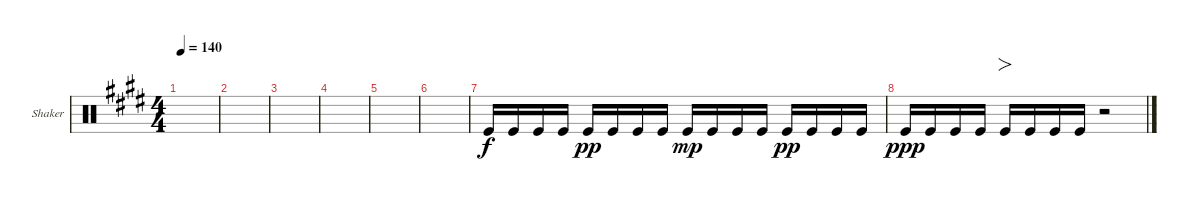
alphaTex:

\defaultSystemsLayout 4
\bracketExtendMode groupsimilarinstruments
\firstSystemTrackNameOrientation horizontal
\otherSystemsTrackNameOrientation horizontal
\track ("Shaker" "Shaker") {instrument percussion}
\staff {score}
\articulation defaults
\ts (4 4)
\tempo 140
\clef neutral
\ks e
|
|
|
|
|
|
"Kick (hit)".16 "Kick (hit)".16 "Kick (hit)".16 "Kick (hit)".16 "Kick (hit)".16{dy pp} "Kick (hit)".16 "Kick (hit)".16 "Kick (hit)".16 "Kick (hit)".16{dy mp} "Kick (hit)".16 "Kick (hit)".16 "Kick (hit)".16 "Kick (hit)".16{dy pp} "Kick (hit)".16 "Kick (hit)".16 "Kick (hit)".16 |
"Kick (hit)".16{dy ppp} "Kick (hit)".16 "Kick (hit)".16 "Kick (hit)".16 "Kick (hit)".16{fo} "Kick (hit)".16 "Kick (hit)".16 "Kick (hit)".16 r.2
